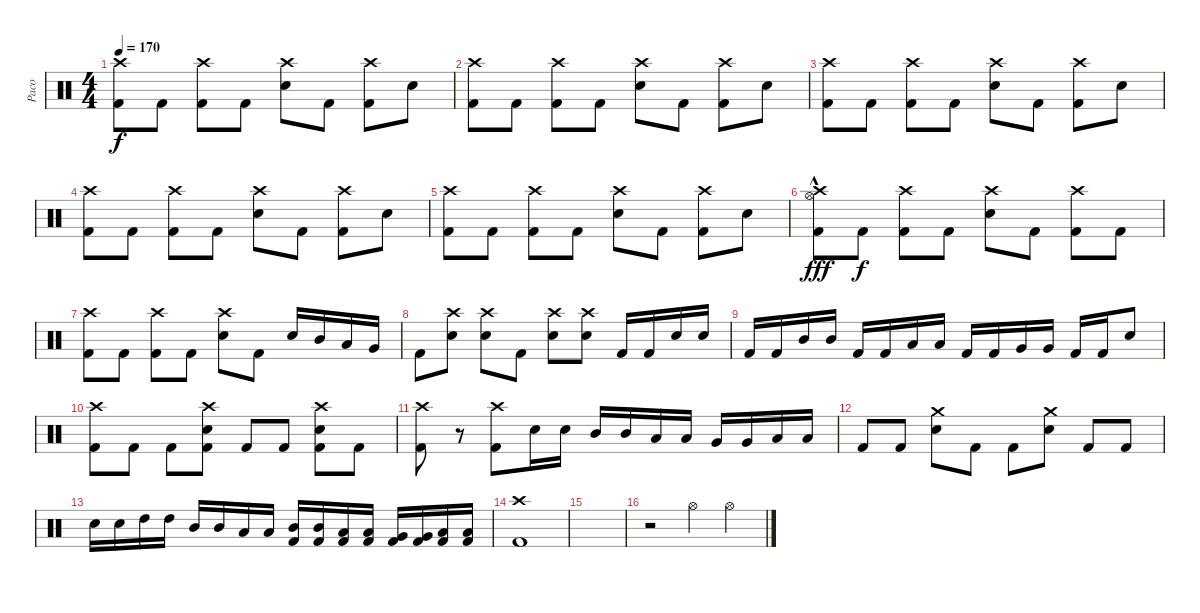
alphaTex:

\track ("Paco" "Paco") {instrument percussion}
\staff {score}
\articulation defaults
\ts (4 4)
\tempo 170
\clef neutral
\ks c
("Crash high (hit)" "Kick (hit) 2").8{dy f} "Kick (hit) 2".8 ("Crash high (hit)" "Kick (hit) 2").8 "Kick (hit) 2".8 ("Crash high (hit)" "Electric Snare (hit)").8 "Kick (hit) 2".8 ("Crash high (hit)" "Kick (hit) 2").8 "Electric Snare (hit)".8 |
("Crash high (hit)" "Kick (hit) 2").8 "Kick (hit) 2".8 ("Crash high (hit)" "Kick (hit) 2").8 "Kick (hit) 2".8 ("Crash high (hit)" "Electric Snare (hit)").8 "Kick (hit) 2".8 ("Crash high (hit)" "Kick (hit) 2").8 "Electric Snare (hit)".8 |
("Crash high (hit)" "Kick (hit) 2").8 "Kick (hit) 2".8 ("Crash high (hit)" "Kick (hit) 2").8 "Kick (hit) 2".8 ("Crash high (hit)" "Electric Snare (hit)").8 "Kick (hit) 2".8 ("Crash high (hit)" "Kick (hit) 2").8 "Electric Snare (hit)".8 |
("Crash high (hit)" "Kick (hit) 2").8 "Kick (hit) 2".8 ("Crash high (hit)" "Kick (hit) 2").8 "Kick (hit) 2".8 ("Crash high (hit)" "Electric Snare (hit)").8 "Kick (hit) 2".8 ("Crash high (hit)" "Kick (hit) 2").8 "Electric Snare (hit)".8 |
("Crash high (hit)" "Kick (hit) 2").8 "Kick (hit) 2".8 ("Crash high (hit)" "Kick (hit) 2").8 "Kick (hit) 2".8 ("Crash high (hit)" "Electric Snare (hit)").8 "Kick (hit) 2".8 ("Crash high (hit)" "Kick (hit) 2").8 "Electric Snare (hit)".8 |
("Crash high (hit)"{hac} "Hi-Hat (open)"{hac} "Kick (hit) 2").8{dy fff} "Kick (hit) 2".8{dy f} ("Crash high (hit)" "Kick (hit) 2").8 "Kick (hit) 2".8 ("Crash high (hit)" "Electric Snare (hit)").8 "Kick (hit) 2".8 ("Crash high (hit)" "Kick (hit) 2").8 "Kick (hit) 2".8 |
("Crash high (hit)" "Kick (hit) 2").8 "Kick (hit) 2".8 ("Crash high (hit)" "Kick (hit) 2").8 "Kick (hit) 2".8 ("Crash high (hit)" "Electric Snare (hit)").8 "Kick (hit) 2".8 "Electric Snare (hit)".16 "Mid Tom (hit)".16 "Low Tom (hit)".16 "Very Low Tom (hit)".16 |
"Kick (hit) 2".8 ("Crash high (hit)" "Electric Snare (hit)").8 ("Crash high (hit)" "Electric Snare (hit)").8 "Kick (hit) 2".8 ("Crash high (hit)" "Electric Snare (hit)").8 ("Crash high (hit)" "Electric Snare (hit)").8 "Kick (hit) 2".16 "Kick (hit) 2".16 "Electric Snare (hit)".16 "Electric Snare (hit)".16 |
"Kick (hit) 2".16 "Kick (hit) 2".16 "Mid Tom (hit)".16 "Mid Tom (hit)".16 "Kick (hit) 2".16 "Kick (hit) 2".16 "Low Tom (hit)".16 "Low Tom (hit)".16 "Kick (hit) 2".16 "Kick (hit) 2".16 "Very Low Tom (hit)".16 "Very Low Tom (hit)".16 "Kick (hit) 2".16 "Kick (hit) 2".16 "Electric Snare (hit)".8 |
("Crash high (hit)" "Kick (hit) 2").8 "Kick (hit) 2".8 "Kick (hit) 2".8 ("Crash high (hit)" "Electric Snare (hit)" "Kick (hit) 2").8 "Kick (hit) 2".8 "Kick (hit) 2".8 ("Crash high (hit)" "Electric Snare (hit)" "Kick (hit) 2").8 "Kick (hit) 2".8 |
("Crash high (hit)" "Kick (hit) 2").8 r.8 ("Crash high (hit)" "Kick (hit) 2").8 "Electric Snare (hit)".16 "Electric Snare (hit)".16 "Mid Tom (hit)".16 "Mid Tom (hit)".16 "Low Tom (hit)".16 "Low Tom (hit)".16 "Very Low Tom (hit)".16 "Very Low Tom (hit)".16 "Low Floor Tom (hit)".16 "Low Floor Tom (hit)".16 |
"Kick (hit) 2".8 "Kick (hit) 2".8 ("Crash medium (hit)" "Electric Snare (hit)").8 "Kick (hit) 2".8 "Kick (hit) 2".8 ("Crash medium (hit)" "Electric Snare (hit)").8 "Kick (hit) 2".8 "Kick (hit) 2".8 |
"Electric Snare (hit)".16 "Electric Snare (hit)".16 "High Tom (hit)".16 "High Tom (hit)".16 "Mid Tom (hit)".16 "Mid Tom (hit)".16 "Low Tom (hit)".16 "Low Tom (hit)".16 ("Mid Tom (hit)" "Kick (hit) 2").16 ("Mid Tom (hit)" "Kick (hit) 2").16 ("Low Tom (hit)" "Kick (hit) 2").16 ("Low Tom (hit)" "Kick (hit) 2").16 ("Very Low Tom (hit)" "Kick (hit) 2").16 ("Very Low Tom (hit)" "Kick (hit) 2").16 ("Low Floor Tom (hit)" "Kick (hit) 2").16 ("Low Floor Tom (hit)" "Kick (hit) 2").16 |
("Crash high (hit)" "Kick (hit) 2").1 |
|
r.2 "Hi-Hat (open)".4 "Hi-Hat (open)".4
